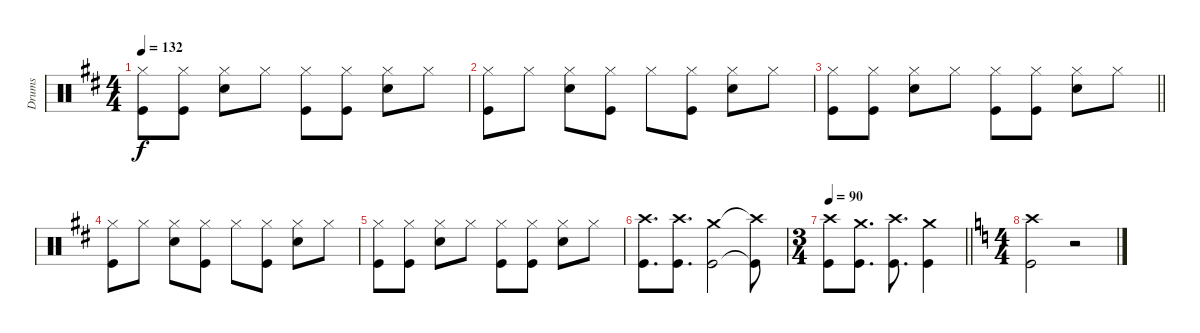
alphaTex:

\track ("Drums" "Drums") {instrument percussion}
\staff {score}
\articulation defaults
\ts (4 4)
\tempo 132
\clef neutral
\ks d
("Hi-Hat (closed)" "Kick (hit)").8{dy f} ("Hi-Hat (closed)" "Kick (hit)").8 ("Hi-Hat (closed)" "Electric Snare (hit)").8 "Hi-Hat (closed)".8 ("Hi-Hat (closed)" "Kick (hit)").8 ("Hi-Hat (closed)" "Kick (hit)").8 ("Hi-Hat (closed)" "Electric Snare (hit)").8 "Hi-Hat (closed)".8 |
("Hi-Hat (closed)" "Kick (hit)").8 "Hi-Hat (closed)".8 ("Hi-Hat (closed)" "Electric Snare (hit)").8 ("Hi-Hat (closed)" "Kick (hit)").8 "Hi-Hat (closed)".8 ("Hi-Hat (closed)" "Kick (hit)").8 ("Hi-Hat (closed)" "Electric Snare (hit)").8 "Hi-Hat (closed)".8 |
\barLineRight lightlight
("Hi-Hat (closed)" "Kick (hit)").8 ("Hi-Hat (closed)" "Kick (hit)").8 ("Hi-Hat (closed)" "Electric Snare (hit)").8 "Hi-Hat (closed)".8 ("Hi-Hat (closed)" "Kick (hit)").8 ("Hi-Hat (closed)" "Kick (hit)").8 ("Hi-Hat (closed)" "Electric Snare (hit)").8 "Hi-Hat (closed)".8 |
("Hi-Hat (closed)" "Kick (hit)").8 "Hi-Hat (closed)".8 ("Hi-Hat (closed)" "Electric Snare (hit)").8 ("Hi-Hat (closed)" "Kick (hit)").8 "Hi-Hat (closed)".8 ("Hi-Hat (closed)" "Kick (hit)").8 ("Hi-Hat (closed)" "Electric Snare (hit)").8 "Hi-Hat (closed)".8 |
("Hi-Hat (closed)" "Kick (hit)").8 ("Hi-Hat (closed)" "Kick (hit)").8 ("Hi-Hat (closed)" "Electric Snare (hit)").8 "Hi-Hat (closed)".8 ("Hi-Hat (closed)" "Kick (hit)").8 ("Hi-Hat (closed)" "Kick (hit)").8 ("Hi-Hat (closed)" "Electric Snare (hit)").8 "Hi-Hat (closed)".8 |
("Crash high (hit)" "Kick (hit)").8{d} ("Crash high (hit)" "Kick (hit)").8{d} ("Crash medium (hit)" "Kick (hit)").2 ("Crash high (hit)"{t} "Kick (hit)"{t}).8 |
\ts (3 4)
\tempo 90
\barLineRight lightlight
("Crash high (hit)" "Kick (hit)").8 ("Crash medium (hit)" "Kick (hit)").8{d} ("Crash high (hit)" "Kick (hit)").8{d} ("Crash medium (hit)" "Kick (hit)").4 |
\ts (4 4)
\ks c
("Crash high (hit)" "Kick (hit)").2 r.2
